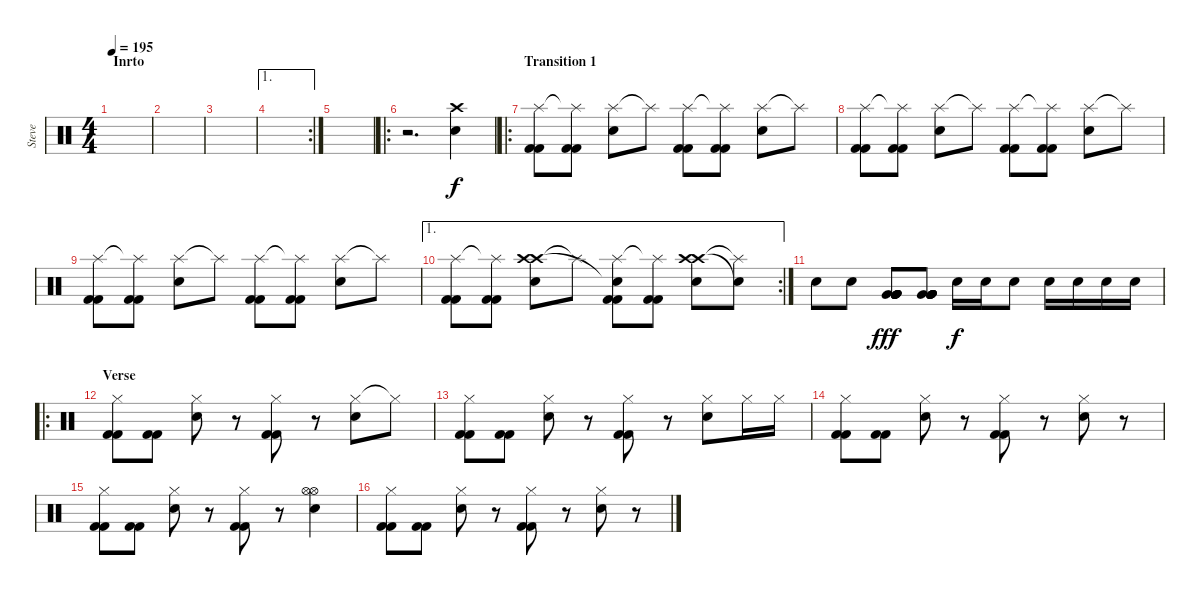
\track ("Steve" "Steve") {instrument percussion}
\staff {score}
\articulation defaults
\ts (4 4)
\section ("" "Inrto")
\tempo 195
\clef neutral
\ks c
|
|
|
\ae 1
\rc 2
|
|
\ro
r.2{d} ("Crash high (hit)" "Snare (hit) 2").4 |
\ro
\section ("" "Transition 1")
("Splash (hit)" "Kick (hit) 2" "Kick (hit) 2").8 ("Splash (hit)"{t} "Kick (hit) 2" "Kick (hit) 2").8 ("Splash (hit)" "Snare (hit) 2").8 "Splash (hit)"{t}.8 ("Splash (hit)" "Kick (hit) 2" "Kick (hit) 2").8 ("Splash (hit)"{t} "Kick (hit) 2" "Kick (hit) 2").8 ("Splash (hit)" "Snare (hit) 2").8 "Splash (hit)"{t}.8 |
("Splash (hit)" "Kick (hit) 2" "Kick (hit) 2").8 ("Splash (hit)"{t} "Kick (hit) 2" "Kick (hit) 2").8 ("Splash (hit)" "Snare (hit) 2").8 "Splash (hit)"{t}.8 ("Splash (hit)" "Kick (hit) 2" "Kick (hit) 2").8 ("Splash (hit)"{t} "Kick (hit) 2" "Kick (hit) 2").8 ("Splash (hit)" "Snare (hit) 2").8 "Splash (hit)"{t}.8 |
("Splash (hit)" "Kick (hit) 2" "Kick (hit) 2").8 ("Splash (hit)"{t} "Kick (hit) 2" "Kick (hit) 2").8 ("Splash (hit)" "Snare (hit) 2").8 "Splash (hit)"{t}.8 ("Splash (hit)" "Kick (hit) 2" "Kick (hit) 2").8 ("Splash (hit)"{t} "Kick (hit) 2" "Kick (hit) 2").8 ("Splash (hit)" "Snare (hit) 2").8 "Splash (hit)"{t}.8 |
\ae 1
\rc 2
("Splash (hit)" "Kick (hit) 2" "Kick (hit) 2").8 ("Splash (hit)"{t} "Kick (hit) 2" "Kick (hit) 2").8 ("Crash high (hit)" "Crash high (hit)" "Snare (hit) 2").8 "Splash (hit)"{t}.8 ("Splash (hit)" "Snare (hit)"{t} "Kick (hit) 2" "Kick (hit) 2").8 ("Splash (hit)"{t} "Kick (hit) 2" "Kick (hit) 2").8 ("Crash high (hit)" "Crash high (hit)" "Snare (hit) 2").8 ("Splash (hit)"{t} "Snare (hit)"{t}).8 |
"Snare (hit) 2".8 "Snare (hit) 2".8 ("Very Low Tom (hit)" "Very Low Tom (hit)" "Very Low Tom (hit)" "Very Low Tom (hit)" "Very Low Tom (hit)" "Very Low Tom (hit)").8{dy fff} ("Very Low Tom (hit)" "Very Low Tom (hit)" "Very Low Tom (hit)" "Very Low Tom (hit)" "Very Low Tom (hit)" "Very Low Tom (hit)").8 "Snare (hit) 2".16{dy f} "Snare (hit) 2".16 "Snare (hit) 2".8 "Snare (hit) 2".16 "Snare (hit) 2".16 "Snare (hit) 2".16 "Snare (hit) 2".16 |
\ro
\section ("" "Verse")
("Hi-Hat (closed)" "Kick (hit) 2" "Kick (hit) 2").8 ("Kick (hit) 2" "Kick (hit) 2").8 ("Hi-Hat (closed)" "Snare (hit) 2").8 r.8 ("Hi-Hat (closed)" "Kick (hit) 2" "Kick (hit) 2").8 r.8 ("Hi-Hat (closed)" "Snare (hit) 2").8 "Hi-Hat (closed)"{t}.8 |
("Hi-Hat (closed)" "Kick (hit) 2" "Kick (hit) 2").8 ("Kick (hit) 2" "Kick (hit) 2").8 ("Hi-Hat (closed)" "Snare (hit) 2").8 r.8 ("Hi-Hat (closed)" "Kick (hit) 2" "Kick (hit) 2").8 r.8 ("Hi-Hat (closed)" "Snare (hit) 2").8 "Hi-Hat (closed)".16 "Hi-Hat (closed)".16 |
("Hi-Hat (closed)" "Kick (hit) 2" "Kick (hit) 2").8 ("Kick (hit) 2" "Kick (hit) 2").8 ("Hi-Hat (closed)" "Snare (hit) 2").8 r.8 ("Hi-Hat (closed)" "Kick (hit) 2" "Kick (hit) 2").8 r.8 ("Hi-Hat (closed)" "Snare (hit) 2").8 r.8 |
("Hi-Hat (closed)" "Kick (hit) 2" "Kick (hit) 2").8 ("Kick (hit) 2" "Kick (hit) 2").8 ("Hi-Hat (closed)" "Snare (hit) 2").8 r.8 ("Hi-Hat (closed)" "Kick (hit) 2" "Kick (hit) 2").8 r.8 ("Hi-Hat (open)" "Hi-Hat (open)" "Snare (hit) 2").4 |
("Hi-Hat (closed)" "Kick (hit) 2" "Kick (hit) 2").8 ("Kick (hit) 2" "Kick (hit) 2").8 ("Hi-Hat (closed)" "Snare (hit) 2").8 r.8 ("Hi-Hat (closed)" "Kick (hit) 2" "Kick (hit) 2").8 r.8 ("Hi-Hat (closed)" "Snare (hit) 2").8 r.8
